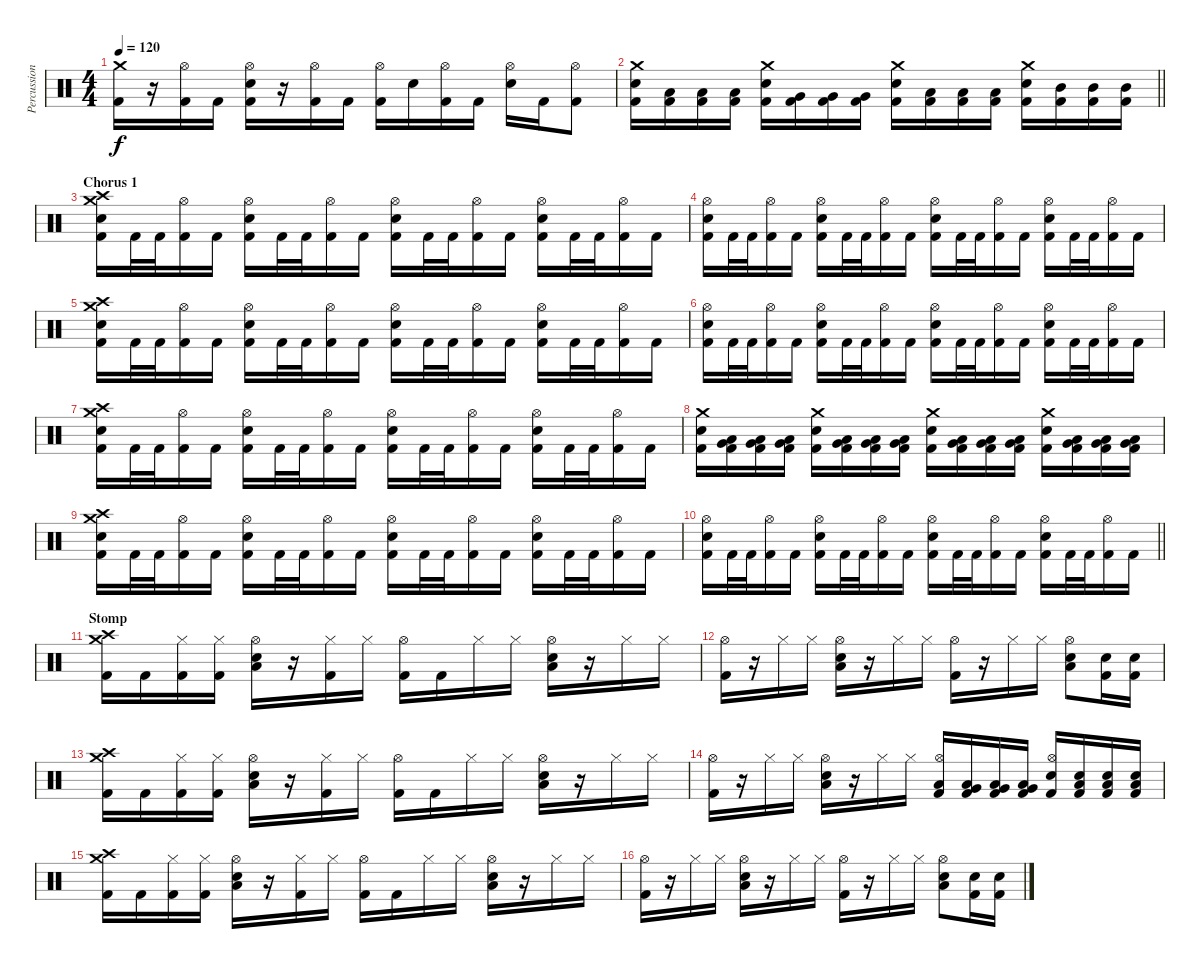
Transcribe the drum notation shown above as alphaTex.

\track ("Percussion" "Percussion") {instrument percussion}
\staff {score}
\articulation defaults
\ts (4 4)
\tempo 120
\clef neutral
\ks c
("Crash medium (hit)" "Kick (hit) 2").16{dy f} r.16 ("Hi-Hat (open)" "Kick (hit) 2").16 "Kick (hit) 2".16 ("Hi-Hat (open)" "Electric Snare (hit)" "Kick (hit) 2").16 r.16 ("Hi-Hat (open)" "Kick (hit) 2").16 "Kick (hit) 2".16 ("Hi-Hat (open)" "Kick (hit) 2").16 "Electric Snare (hit)".16 ("Hi-Hat (open)" "Kick (hit) 2").16 "Kick (hit) 2".16 ("Hi-Hat (open)" "Electric Snare (hit)").16 "Kick (hit) 2".16 ("Hi-Hat (open)" "Kick (hit) 2").8 |
\barLineRight lightlight
("Crash medium (hit)" "Electric Snare (hit)" "Kick (hit) 2").16 ("Low Floor Tom (hit)" "Kick (hit) 2").16 ("Low Floor Tom (hit)" "Kick (hit) 2").16 ("Low Floor Tom (hit)" "Kick (hit) 2").16 ("Crash medium (hit)" "Electric Snare (hit)" "Kick (hit) 2").16 ("Very Low Tom (hit)" "Kick (hit) 2").16 ("Very Low Tom (hit)" "Kick (hit) 2").16 ("Very Low Tom (hit)" "Kick (hit) 2").16 ("Crash medium (hit)" "Electric Snare (hit)" "Kick (hit) 2").16 ("Low Tom (hit)" "Kick (hit) 2").16 ("Low Tom (hit)" "Kick (hit) 2").16 ("Low Tom (hit)" "Kick (hit) 2").16 ("Crash medium (hit)" "Electric Snare (hit)" "Kick (hit) 2").16 ("Mid Tom (hit)" "Kick (hit) 2").16 ("Mid Tom (hit)" "Kick (hit) 2").16 ("Mid Tom (hit)" "Kick (hit) 2").16 |
\section ("" "Chorus 1")
("Crash medium (hit)" "Crash high (hit)" "Electric Snare (hit)" "Kick (hit) 2").16 "Kick (hit) 2".32 "Kick (hit) 2".32 ("Hi-Hat (open)" "Kick (hit) 2").16 "Kick (hit) 2".16 ("Hi-Hat (open)" "Electric Snare (hit)" "Kick (hit) 2").16 "Kick (hit) 2".32 "Kick (hit) 2".32 ("Hi-Hat (open)" "Kick (hit) 2").16 "Kick (hit) 2".16 ("Hi-Hat (open)" "Electric Snare (hit)" "Kick (hit) 2").16 "Kick (hit) 2".32 "Kick (hit) 2".32 ("Hi-Hat (open)" "Kick (hit) 2").16 "Kick (hit) 2".16 ("Hi-Hat (open)" "Electric Snare (hit)" "Kick (hit) 2").16 "Kick (hit) 2".32 "Kick (hit) 2".32 ("Hi-Hat (open)" "Kick (hit) 2").16 "Kick (hit) 2".16 |
("Hi-Hat (open)" "Electric Snare (hit)" "Kick (hit) 2").16 "Kick (hit) 2".32 "Kick (hit) 2".32 ("Hi-Hat (open)" "Kick (hit) 2").16 "Kick (hit) 2".16 ("Hi-Hat (open)" "Electric Snare (hit)" "Kick (hit) 2").16 "Kick (hit) 2".32 "Kick (hit) 2".32 ("Hi-Hat (open)" "Kick (hit) 2").16 "Kick (hit) 2".16 ("Hi-Hat (open)" "Electric Snare (hit)" "Kick (hit) 2").16 "Kick (hit) 2".32 "Kick (hit) 2".32 ("Hi-Hat (open)" "Kick (hit) 2").16 "Kick (hit) 2".16 ("Hi-Hat (open)" "Electric Snare (hit)" "Kick (hit) 2").16 "Kick (hit) 2".32 "Kick (hit) 2".32 ("Hi-Hat (open)" "Kick (hit) 2").16 "Kick (hit) 2".16 |
("Crash medium (hit)" "Crash high (hit)" "Electric Snare (hit)" "Kick (hit) 2").16 "Kick (hit) 2".32 "Kick (hit) 2".32 ("Hi-Hat (open)" "Kick (hit) 2").16 "Kick (hit) 2".16 ("Hi-Hat (open)" "Electric Snare (hit)" "Kick (hit) 2").16 "Kick (hit) 2".32 "Kick (hit) 2".32 ("Hi-Hat (open)" "Kick (hit) 2").16 "Kick (hit) 2".16 ("Hi-Hat (open)" "Electric Snare (hit)" "Kick (hit) 2").16 "Kick (hit) 2".32 "Kick (hit) 2".32 ("Hi-Hat (open)" "Kick (hit) 2").16 "Kick (hit) 2".16 ("Hi-Hat (open)" "Electric Snare (hit)" "Kick (hit) 2").16 "Kick (hit) 2".32 "Kick (hit) 2".32 ("Hi-Hat (open)" "Kick (hit) 2").16 "Kick (hit) 2".16 |
("Hi-Hat (open)" "Electric Snare (hit)" "Kick (hit) 2").16 "Kick (hit) 2".32 "Kick (hit) 2".32 ("Hi-Hat (open)" "Kick (hit) 2").16 "Kick (hit) 2".16 ("Hi-Hat (open)" "Electric Snare (hit)" "Kick (hit) 2").16 "Kick (hit) 2".32 "Kick (hit) 2".32 ("Hi-Hat (open)" "Kick (hit) 2").16 "Kick (hit) 2".16 ("Hi-Hat (open)" "Electric Snare (hit)" "Kick (hit) 2").16 "Kick (hit) 2".32 "Kick (hit) 2".32 ("Hi-Hat (open)" "Kick (hit) 2").16 "Kick (hit) 2".16 ("Hi-Hat (open)" "Electric Snare (hit)" "Kick (hit) 2").16 "Kick (hit) 2".32 "Kick (hit) 2".32 ("Hi-Hat (open)" "Kick (hit) 2").16 "Kick (hit) 2".16 |
("Crash medium (hit)" "Crash high (hit)" "Electric Snare (hit)" "Kick (hit) 2").16 "Kick (hit) 2".32 "Kick (hit) 2".32 ("Hi-Hat (open)" "Kick (hit) 2").16 "Kick (hit) 2".16 ("Hi-Hat (open)" "Electric Snare (hit)" "Kick (hit) 2").16 "Kick (hit) 2".32 "Kick (hit) 2".32 ("Hi-Hat (open)" "Kick (hit) 2").16 "Kick (hit) 2".16 ("Hi-Hat (open)" "Electric Snare (hit)" "Kick (hit) 2").16 "Kick (hit) 2".32 "Kick (hit) 2".32 ("Hi-Hat (open)" "Kick (hit) 2").16 "Kick (hit) 2".16 ("Hi-Hat (open)" "Electric Snare (hit)" "Kick (hit) 2").16 "Kick (hit) 2".32 "Kick (hit) 2".32 ("Hi-Hat (open)" "Kick (hit) 2").16 "Kick (hit) 2".16 |
("Crash medium (hit)" "Electric Snare (hit)" "Kick (hit) 2").16 ("Low Floor Tom (hit)" "Very Low Tom (hit)" "Kick (hit) 2").16 ("Low Floor Tom (hit)" "Very Low Tom (hit)" "Kick (hit) 2").16 ("Low Floor Tom (hit)" "Very Low Tom (hit)" "Kick (hit) 2").16 ("Crash medium (hit)" "Electric Snare (hit)" "Kick (hit) 2").16 ("Low Floor Tom (hit)" "Very Low Tom (hit)" "Kick (hit) 2").16 ("Low Floor Tom (hit)" "Very Low Tom (hit)" "Kick (hit) 2").16 ("Low Floor Tom (hit)" "Very Low Tom (hit)" "Kick (hit) 2").16 ("Crash medium (hit)" "Electric Snare (hit)" "Kick (hit) 2").16 ("Low Floor Tom (hit)" "Very Low Tom (hit)" "Kick (hit) 2").16 ("Low Floor Tom (hit)" "Very Low Tom (hit)" "Kick (hit) 2").16 ("Low Floor Tom (hit)" "Very Low Tom (hit)" "Kick (hit) 2").16 ("Crash medium (hit)" "Electric Snare (hit)" "Kick (hit) 2").16 ("Low Floor Tom (hit)" "Very Low Tom (hit)" "Kick (hit) 2").16 ("Low Floor Tom (hit)" "Very Low Tom (hit)" "Kick (hit) 2").16 ("Low Floor Tom (hit)" "Very Low Tom (hit)" "Kick (hit) 2").16 |
("Crash medium (hit)" "Crash high (hit)" "Electric Snare (hit)" "Kick (hit) 2").16 "Kick (hit) 2".32 "Kick (hit) 2".32 ("Hi-Hat (open)" "Kick (hit) 2").16 "Kick (hit) 2".16 ("Hi-Hat (open)" "Electric Snare (hit)" "Kick (hit) 2").16 "Kick (hit) 2".32 "Kick (hit) 2".32 ("Hi-Hat (open)" "Kick (hit) 2").16 "Kick (hit) 2".16 ("Hi-Hat (open)" "Electric Snare (hit)" "Kick (hit) 2").16 "Kick (hit) 2".32 "Kick (hit) 2".32 ("Hi-Hat (open)" "Kick (hit) 2").16 "Kick (hit) 2".16 ("Hi-Hat (open)" "Electric Snare (hit)" "Kick (hit) 2").16 "Kick (hit) 2".32 "Kick (hit) 2".32 ("Hi-Hat (open)" "Kick (hit) 2").16 "Kick (hit) 2".16 |
\barLineRight lightlight
("Hi-Hat (open)" "Electric Snare (hit)" "Kick (hit) 2").16 "Kick (hit) 2".32 "Kick (hit) 2".32 ("Hi-Hat (open)" "Kick (hit) 2").16 "Kick (hit) 2".16 ("Hi-Hat (open)" "Electric Snare (hit)" "Kick (hit) 2").16 "Kick (hit) 2".32 "Kick (hit) 2".32 ("Hi-Hat (open)" "Kick (hit) 2").16 "Kick (hit) 2".16 ("Hi-Hat (open)" "Electric Snare (hit)" "Kick (hit) 2").16 "Kick (hit) 2".32 "Kick (hit) 2".32 ("Hi-Hat (open)" "Kick (hit) 2").16 "Kick (hit) 2".16 ("Hi-Hat (open)" "Electric Snare (hit)" "Kick (hit) 2").16 "Kick (hit) 2".32 "Kick (hit) 2".32 ("Hi-Hat (open)" "Kick (hit) 2").16 "Kick (hit) 2".16 |
\section ("" "Stomp")
("Crash high (hit)" "Crash medium (hit)" "Kick (hit) 2").16 "Kick (hit) 2".16 ("Hi-Hat (closed)" "Kick (hit) 2").16 ("Hi-Hat (closed)" "Kick (hit) 2").16 ("Hi-Hat (open)" "Electric Snare (hit)" "Low Floor Tom (hit)").16 r.16 ("Hi-Hat (closed)" "Kick (hit) 2").16 "Hi-Hat (closed)".16 ("Hi-Hat (open)" "Kick (hit) 2").16 "Kick (hit) 2".16 "Hi-Hat (closed)".16 "Hi-Hat (closed)".16 ("Hi-Hat (open)" "Electric Snare (hit)" "Low Floor Tom (hit)").16 r.16 "Hi-Hat (closed)".16 "Hi-Hat (closed)".16 |
("Hi-Hat (open)" "Kick (hit) 2").16 r.16 "Hi-Hat (closed)".16 "Hi-Hat (closed)".16 ("Hi-Hat (open)" "Electric Snare (hit)" "Low Floor Tom (hit)").16 r.16 "Hi-Hat (closed)".16 "Hi-Hat (closed)".16 ("Hi-Hat (open)" "Kick (hit) 2").16 r.16 "Hi-Hat (closed)".16 "Hi-Hat (closed)".16 ("Hi-Hat (open)" "Electric Snare (hit)" "Low Floor Tom (hit)").8 ("Electric Snare (hit)" "Kick (hit) 2").16 ("Electric Snare (hit)" "Kick (hit) 2").16 |
("Crash high (hit)" "Crash medium (hit)" "Kick (hit) 2").16 "Kick (hit) 2".16 ("Hi-Hat (closed)" "Kick (hit) 2").16 ("Hi-Hat (closed)" "Kick (hit) 2").16 ("Hi-Hat (open)" "Electric Snare (hit)" "Low Floor Tom (hit)").16 r.16 ("Hi-Hat (closed)" "Kick (hit) 2").16 "Hi-Hat (closed)".16 ("Hi-Hat (open)" "Kick (hit) 2").16 "Kick (hit) 2".16 "Hi-Hat (closed)".16 "Hi-Hat (closed)".16 ("Hi-Hat (open)" "Electric Snare (hit)" "Low Floor Tom (hit)").16 r.16 "Hi-Hat (closed)".16 "Hi-Hat (closed)".16 |
("Hi-Hat (open)" "Kick (hit) 2").16 r.16 "Hi-Hat (closed)".16 "Hi-Hat (closed)".16 ("Hi-Hat (open)" "Electric Snare (hit)" "Low Floor Tom (hit)").16 r.16 "Hi-Hat (closed)".16 "Hi-Hat (closed)".16 ("Hi-Hat (open)" "Low Floor Tom (hit)" "Kick (hit) 2").16 ("Low Floor Tom (hit)" "Very Low Tom (hit)" "Kick (hit) 2").16 ("Low Floor Tom (hit)" "Very Low Tom (hit)" "Kick (hit) 2").16 ("Low Floor Tom (hit)" "Very Low Tom (hit)" "Kick (hit) 2").16 ("Hi-Hat (open)" "Electric Snare (hit)" "Kick (hit) 2").16 ("Electric Snare (hit)" "Low Floor Tom (hit)" "Kick (hit) 2").16 ("Electric Snare (hit)" "Low Floor Tom (hit)" "Kick (hit) 2").16 ("Electric Snare (hit)" "Low Floor Tom (hit)" "Kick (hit) 2").16 |
("Crash high (hit)" "Crash medium (hit)" "Kick (hit) 2").16 "Kick (hit) 2".16 ("Hi-Hat (closed)" "Kick (hit) 2").16 ("Hi-Hat (closed)" "Kick (hit) 2").16 ("Hi-Hat (open)" "Electric Snare (hit)" "Low Floor Tom (hit)").16 r.16 ("Hi-Hat (closed)" "Kick (hit) 2").16 "Hi-Hat (closed)".16 ("Hi-Hat (open)" "Kick (hit) 2").16 "Kick (hit) 2".16 "Hi-Hat (closed)".16 "Hi-Hat (closed)".16 ("Hi-Hat (open)" "Electric Snare (hit)" "Low Floor Tom (hit)").16 r.16 "Hi-Hat (closed)".16 "Hi-Hat (closed)".16 |
("Hi-Hat (open)" "Kick (hit) 2").16 r.16 "Hi-Hat (closed)".16 "Hi-Hat (closed)".16 ("Hi-Hat (open)" "Electric Snare (hit)" "Low Floor Tom (hit)").16 r.16 "Hi-Hat (closed)".16 "Hi-Hat (closed)".16 ("Hi-Hat (open)" "Kick (hit) 2").16 r.16 "Hi-Hat (closed)".16 "Hi-Hat (closed)".16 ("Hi-Hat (open)" "Electric Snare (hit)" "Low Floor Tom (hit)").8 ("Electric Snare (hit)" "Kick (hit) 2").16 ("Electric Snare (hit)" "Kick (hit) 2").16
